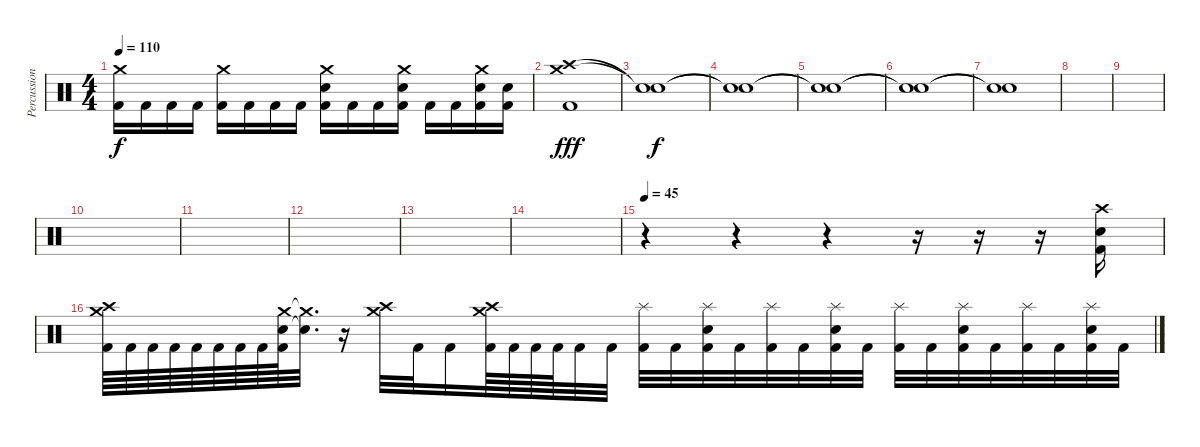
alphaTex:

\track ("Percussion" "Percussion") {instrument percussion}
\staff {score}
\articulation defaults
\ts (4 4)
\tempo 110
\clef neutral
\ks c
("Crash medium (hit)" "Kick (hit) 2").16{dy f} "Kick (hit) 2".16 "Kick (hit) 2".16 "Kick (hit) 2".16 ("Crash medium (hit)" "Kick (hit) 2").16 "Kick (hit) 2".16 "Kick (hit) 2".16 "Kick (hit) 2".16 ("Crash medium (hit)" "Snare (hit) 2" "Kick (hit) 2").16 "Kick (hit) 2".16 "Kick (hit) 2".16 ("Crash medium (hit)" "Snare (hit) 2" "Kick (hit) 2").16 "Kick (hit) 2".16 "Kick (hit) 2".16 ("Crash medium (hit)" "Snare (hit) 2" "Kick (hit) 2").16 ("Snare (hit) 2" "Kick (hit) 2").16 |
("Crash medium (hit)" "Crash high (hit)" "Kick (hit) 2").1{dy fff} |
("Snare (hit)"{t} "Snare (hit)"{t}).1{dy f} |
("Snare (hit)"{t} "Snare (hit)"{t}).1 |
("Snare (hit)"{t} "Snare (hit)"{t}).1 |
("Snare (hit)"{t} "Snare (hit)"{t}).1 |
("Snare (hit)"{t} "Snare (hit)"{t}).1 |
|
|
|
|
|
|
|
\tempo 45
r.4 r.4 r.4 r.16 r.16 r.16 ("Crash high (hit)" "Snare (hit) 2" "Kick (hit) 2").16 |
("Crash medium (hit)" "Crash high (hit)" "Kick (hit) 2").64 "Kick (hit) 2".64 "Kick (hit) 2".64 "Kick (hit) 2".64 "Kick (hit) 2".64 "Kick (hit) 2".64 "Kick (hit) 2".64 "Kick (hit) 2".64 ("Crash medium (hit)" "Snare (hit) 2" "Kick (hit) 2").64 ("Crash medium (hit)"{t} "Snare (hit) 2"{t}).32{d} r.16 ("Crash medium (hit)" "Crash high (hit)").32 "Kick (hit) 2".32 "Kick (hit) 2".16 ("Crash medium (hit)" "Crash high (hit)" "Kick (hit) 2").64 "Kick (hit) 2".64 "Kick (hit) 2".64 "Kick (hit) 2".64 "Kick (hit) 2".32 "Kick (hit) 2".32 ("Splash (hit)" "Kick (hit) 2").32 "Kick (hit) 2".32 ("Splash (hit)" "Snare (hit) 2" "Kick (hit) 2").32 "Kick (hit) 2".32 ("Splash (hit)" "Kick (hit) 2").32 "Kick (hit) 2".32 ("Splash (hit)" "Snare (hit) 2" "Kick (hit) 2").32 "Kick (hit) 2".32 ("Splash (hit)" "Kick (hit) 2").32 "Kick (hit) 2".32 ("Splash (hit)" "Snare (hit) 2" "Kick (hit) 2").32 "Kick (hit) 2".32 ("Splash (hit)" "Kick (hit) 2").32 "Kick (hit) 2".32 ("Splash (hit)" "Snare (hit) 2" "Kick (hit) 2").32 "Kick (hit) 2".32
